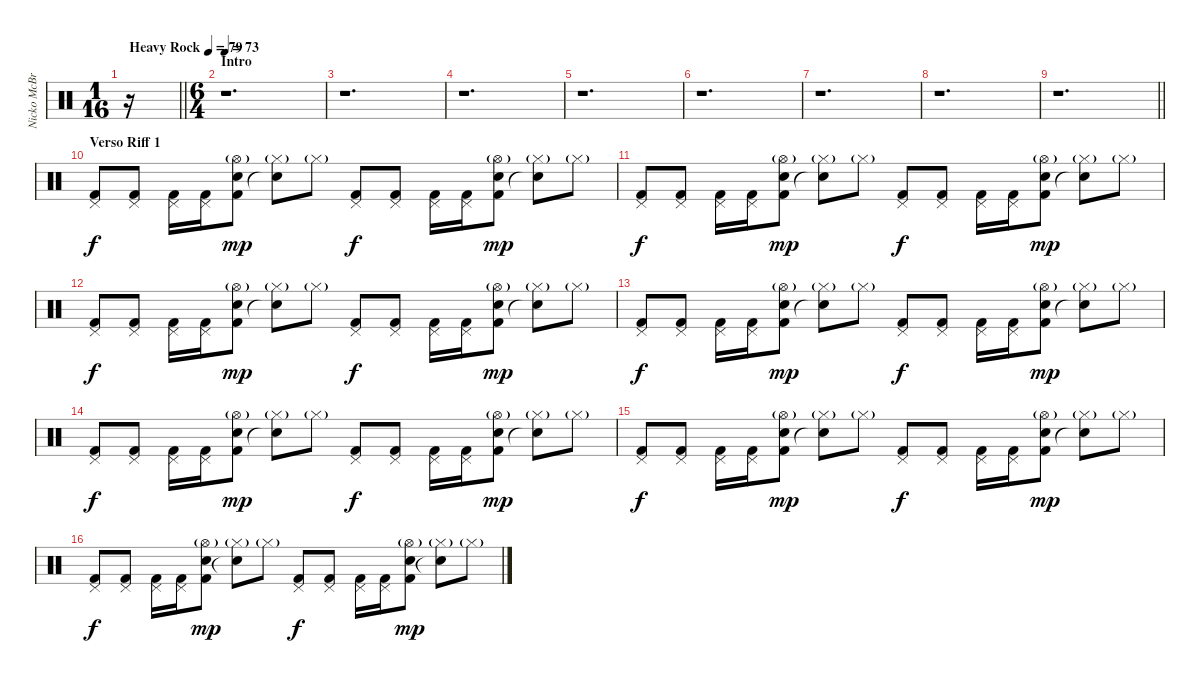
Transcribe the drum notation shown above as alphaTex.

\track ("Nicko McBrain" "Nicko McBr") {instrument percussion}
\staff {score}
\articulation defaults
\ts (1 16)
\tempo (79 "Heavy Rock")
\clef neutral
\barLineRight lightlight
\ks c
r.16{dy f} |
\ts (6 4)
\section ("" "Intro")
\tempo 73
r.1{d} |
r.1{d} |
r.1{d} |
r.1{d} |
r.1{d} |
r.1{d} |
r.1{d} |
\barLineRight lightlight
r.1{d} |
\section ("" "Verso Riff 1")
("Kick (hit) 2" "Pedal Hi-Hat (hit)").8 ("Kick (hit) 2" "Pedal Hi-Hat (hit)").8 ("Kick (hit) 2" "Pedal Hi-Hat (hit)").16 ("Kick (hit) 2" "Pedal Hi-Hat (hit)").16 ("Snare (hit) 2" "Kick (hit) 2" "Hi-Hat (open)"{g}).8{dy mp} ("Hi-Hat (closed)"{g} "Snare (hit)"{t}).8 "Hi-Hat (closed)"{g}.8 ("Kick (hit) 2" "Pedal Hi-Hat (hit)").8{dy f} ("Kick (hit) 2" "Pedal Hi-Hat (hit)").8 ("Kick (hit) 2" "Pedal Hi-Hat (hit)").16 ("Kick (hit) 2" "Pedal Hi-Hat (hit)").16 ("Snare (hit) 2" "Kick (hit) 2" "Hi-Hat (open)"{g}).8{dy mp} ("Hi-Hat (closed)"{g} "Snare (hit)"{t}).8 "Hi-Hat (closed)"{g}.8 |
("Kick (hit) 2" "Pedal Hi-Hat (hit)").8{dy f} ("Kick (hit) 2" "Pedal Hi-Hat (hit)").8 ("Kick (hit) 2" "Pedal Hi-Hat (hit)").16 ("Kick (hit) 2" "Pedal Hi-Hat (hit)").16 ("Snare (hit) 2" "Kick (hit) 2" "Hi-Hat (open)"{g}).8{dy mp} ("Hi-Hat (closed)"{g} "Snare (hit)"{t}).8 "Hi-Hat (closed)"{g}.8 ("Kick (hit) 2" "Pedal Hi-Hat (hit)").8{dy f} ("Kick (hit) 2" "Pedal Hi-Hat (hit)").8 ("Kick (hit) 2" "Pedal Hi-Hat (hit)").16 ("Kick (hit) 2" "Pedal Hi-Hat (hit)").16 ("Snare (hit) 2" "Kick (hit) 2" "Hi-Hat (open)"{g}).8{dy mp} ("Hi-Hat (closed)"{g} "Snare (hit)"{t}).8 "Hi-Hat (closed)"{g}.8 |
("Kick (hit) 2" "Pedal Hi-Hat (hit)").8{dy f} ("Kick (hit) 2" "Pedal Hi-Hat (hit)").8 ("Kick (hit) 2" "Pedal Hi-Hat (hit)").16 ("Kick (hit) 2" "Pedal Hi-Hat (hit)").16 ("Snare (hit) 2" "Kick (hit) 2" "Hi-Hat (open)"{g}).8{dy mp} ("Hi-Hat (closed)"{g} "Snare (hit)"{t}).8 "Hi-Hat (closed)"{g}.8 ("Kick (hit) 2" "Pedal Hi-Hat (hit)").8{dy f} ("Kick (hit) 2" "Pedal Hi-Hat (hit)").8 ("Kick (hit) 2" "Pedal Hi-Hat (hit)").16 ("Kick (hit) 2" "Pedal Hi-Hat (hit)").16 ("Snare (hit) 2" "Kick (hit) 2" "Hi-Hat (open)"{g}).8{dy mp} ("Hi-Hat (closed)"{g} "Snare (hit)"{t}).8 "Hi-Hat (closed)"{g}.8 |
("Kick (hit) 2" "Pedal Hi-Hat (hit)").8{dy f} ("Kick (hit) 2" "Pedal Hi-Hat (hit)").8 ("Kick (hit) 2" "Pedal Hi-Hat (hit)").16 ("Kick (hit) 2" "Pedal Hi-Hat (hit)").16 ("Snare (hit) 2" "Kick (hit) 2" "Hi-Hat (open)"{g}).8{dy mp} ("Hi-Hat (closed)"{g} "Snare (hit)"{t}).8 "Hi-Hat (closed)"{g}.8 ("Kick (hit) 2" "Pedal Hi-Hat (hit)").8{dy f} ("Kick (hit) 2" "Pedal Hi-Hat (hit)").8 ("Kick (hit) 2" "Pedal Hi-Hat (hit)").16 ("Kick (hit) 2" "Pedal Hi-Hat (hit)").16 ("Snare (hit) 2" "Kick (hit) 2" "Hi-Hat (open)"{g}).8{dy mp} ("Hi-Hat (closed)"{g} "Snare (hit)"{t}).8 "Hi-Hat (closed)"{g}.8 |
("Kick (hit) 2" "Pedal Hi-Hat (hit)").8{dy f} ("Kick (hit) 2" "Pedal Hi-Hat (hit)").8 ("Kick (hit) 2" "Pedal Hi-Hat (hit)").16 ("Kick (hit) 2" "Pedal Hi-Hat (hit)").16 ("Snare (hit) 2" "Kick (hit) 2" "Hi-Hat (open)"{g}).8{dy mp} ("Hi-Hat (closed)"{g} "Snare (hit)"{t}).8 "Hi-Hat (closed)"{g}.8 ("Kick (hit) 2" "Pedal Hi-Hat (hit)").8{dy f} ("Kick (hit) 2" "Pedal Hi-Hat (hit)").8 ("Kick (hit) 2" "Pedal Hi-Hat (hit)").16 ("Kick (hit) 2" "Pedal Hi-Hat (hit)").16 ("Snare (hit) 2" "Kick (hit) 2" "Hi-Hat (open)"{g}).8{dy mp} ("Hi-Hat (closed)"{g} "Snare (hit)"{t}).8 "Hi-Hat (closed)"{g}.8 |
("Kick (hit) 2" "Pedal Hi-Hat (hit)").8{dy f} ("Kick (hit) 2" "Pedal Hi-Hat (hit)").8 ("Kick (hit) 2" "Pedal Hi-Hat (hit)").16 ("Kick (hit) 2" "Pedal Hi-Hat (hit)").16 ("Snare (hit) 2" "Kick (hit) 2" "Hi-Hat (open)"{g}).8{dy mp} ("Hi-Hat (closed)"{g} "Snare (hit)"{t}).8 "Hi-Hat (closed)"{g}.8 ("Kick (hit) 2" "Pedal Hi-Hat (hit)").8{dy f} ("Kick (hit) 2" "Pedal Hi-Hat (hit)").8 ("Kick (hit) 2" "Pedal Hi-Hat (hit)").16 ("Kick (hit) 2" "Pedal Hi-Hat (hit)").16 ("Snare (hit) 2" "Kick (hit) 2" "Hi-Hat (open)"{g}).8{dy mp} ("Hi-Hat (closed)"{g} "Snare (hit)"{t}).8 "Hi-Hat (closed)"{g}.8 |
("Kick (hit) 2" "Pedal Hi-Hat (hit)").8{dy f} ("Kick (hit) 2" "Pedal Hi-Hat (hit)").8 ("Kick (hit) 2" "Pedal Hi-Hat (hit)").16 ("Kick (hit) 2" "Pedal Hi-Hat (hit)").16 ("Snare (hit) 2" "Kick (hit) 2" "Hi-Hat (open)"{g}).8{dy mp} ("Hi-Hat (closed)"{g} "Snare (hit)"{t}).8 "Hi-Hat (closed)"{g}.8 ("Kick (hit) 2" "Pedal Hi-Hat (hit)").8{dy f} ("Kick (hit) 2" "Pedal Hi-Hat (hit)").8 ("Kick (hit) 2" "Pedal Hi-Hat (hit)").16 ("Kick (hit) 2" "Pedal Hi-Hat (hit)").16 ("Snare (hit) 2" "Kick (hit) 2" "Hi-Hat (open)"{g}).8{dy mp} ("Hi-Hat (closed)"{g} "Snare (hit)"{t}).8 "Hi-Hat (closed)"{g}.8
